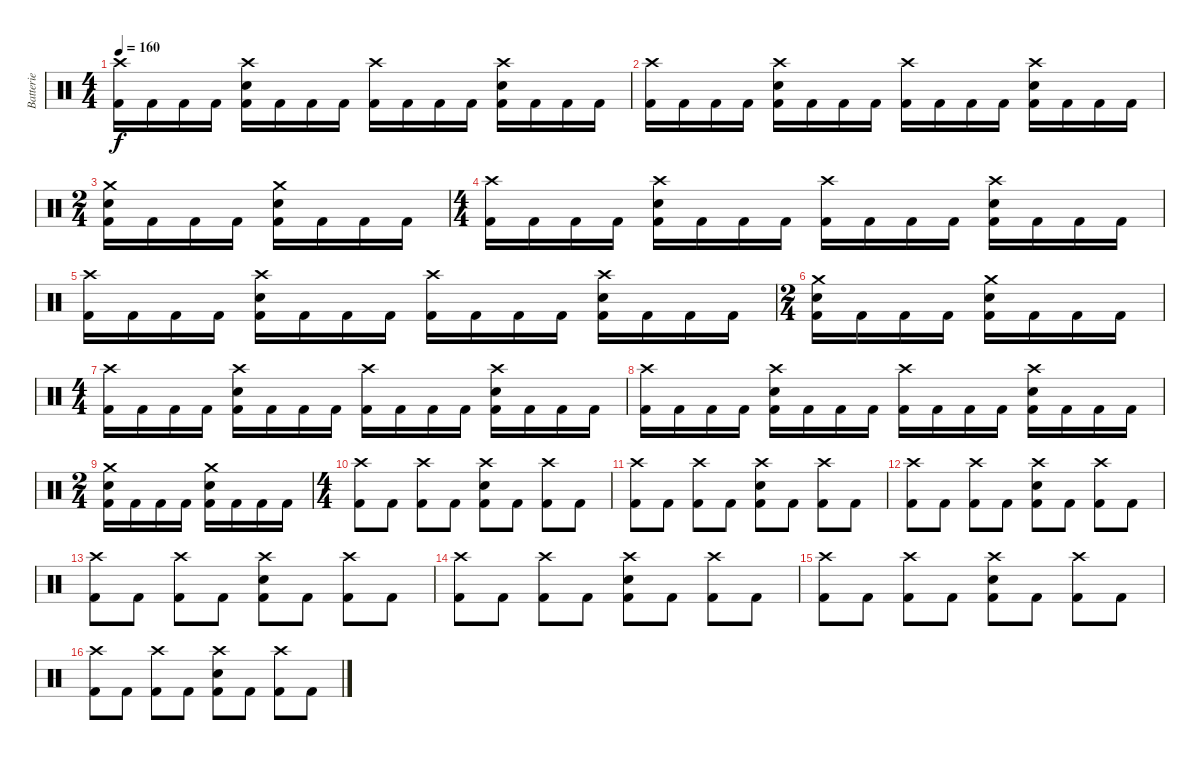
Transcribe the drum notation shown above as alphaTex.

\track ("Batterie" "Batterie") {instrument percussion}
\staff {score}
\articulation defaults
\ts (4 4)
\tempo 160
\clef neutral
\ks c
("Crash high (hit)" "Kick (hit) 2").16{dy f} "Kick (hit) 2".16 "Kick (hit) 2".16 "Kick (hit) 2".16 ("Crash high (hit)" "Electric Snare (hit)" "Kick (hit) 2").16 "Kick (hit) 2".16 "Kick (hit) 2".16 "Kick (hit) 2".16 ("Crash high (hit)" "Kick (hit) 2").16 "Kick (hit) 2".16 "Kick (hit) 2".16 "Kick (hit) 2".16 ("Crash high (hit)" "Electric Snare (hit)" "Kick (hit) 2").16 "Kick (hit) 2".16 "Kick (hit) 2".16 "Kick (hit) 2".16 |
("Crash high (hit)" "Kick (hit) 2").16 "Kick (hit) 2".16 "Kick (hit) 2".16 "Kick (hit) 2".16 ("Crash high (hit)" "Electric Snare (hit)" "Kick (hit) 2").16 "Kick (hit) 2".16 "Kick (hit) 2".16 "Kick (hit) 2".16 ("Crash high (hit)" "Kick (hit) 2").16 "Kick (hit) 2".16 "Kick (hit) 2".16 "Kick (hit) 2".16 ("Crash high (hit)" "Electric Snare (hit)" "Kick (hit) 2").16 "Kick (hit) 2".16 "Kick (hit) 2".16 "Kick (hit) 2".16 |
\ts (2 4)
("Crash medium (hit)" "Electric Snare (hit)" "Kick (hit) 2").16 "Kick (hit) 2".16 "Kick (hit) 2".16 "Kick (hit) 2".16 ("Crash medium (hit)" "Electric Snare (hit)" "Kick (hit) 2").16 "Kick (hit) 2".16 "Kick (hit) 2".16 "Kick (hit) 2".16 |
\ts (4 4)
("Crash high (hit)" "Kick (hit) 2").16 "Kick (hit) 2".16 "Kick (hit) 2".16 "Kick (hit) 2".16 ("Crash high (hit)" "Electric Snare (hit)" "Kick (hit) 2").16 "Kick (hit) 2".16 "Kick (hit) 2".16 "Kick (hit) 2".16 ("Crash high (hit)" "Kick (hit) 2").16 "Kick (hit) 2".16 "Kick (hit) 2".16 "Kick (hit) 2".16 ("Crash high (hit)" "Electric Snare (hit)" "Kick (hit) 2").16 "Kick (hit) 2".16 "Kick (hit) 2".16 "Kick (hit) 2".16 |
("Crash high (hit)" "Kick (hit) 2").16 "Kick (hit) 2".16 "Kick (hit) 2".16 "Kick (hit) 2".16 ("Crash high (hit)" "Electric Snare (hit)" "Kick (hit) 2").16 "Kick (hit) 2".16 "Kick (hit) 2".16 "Kick (hit) 2".16 ("Crash high (hit)" "Kick (hit) 2").16 "Kick (hit) 2".16 "Kick (hit) 2".16 "Kick (hit) 2".16 ("Crash high (hit)" "Electric Snare (hit)" "Kick (hit) 2").16 "Kick (hit) 2".16 "Kick (hit) 2".16 "Kick (hit) 2".16 |
\ts (2 4)
("Crash medium (hit)" "Electric Snare (hit)" "Kick (hit) 2").16 "Kick (hit) 2".16 "Kick (hit) 2".16 "Kick (hit) 2".16 ("Crash medium (hit)" "Electric Snare (hit)" "Kick (hit) 2").16 "Kick (hit) 2".16 "Kick (hit) 2".16 "Kick (hit) 2".16 |
\ts (4 4)
("Crash high (hit)" "Kick (hit) 2").16 "Kick (hit) 2".16 "Kick (hit) 2".16 "Kick (hit) 2".16 ("Crash high (hit)" "Electric Snare (hit)" "Kick (hit) 2").16 "Kick (hit) 2".16 "Kick (hit) 2".16 "Kick (hit) 2".16 ("Crash high (hit)" "Kick (hit) 2").16 "Kick (hit) 2".16 "Kick (hit) 2".16 "Kick (hit) 2".16 ("Crash high (hit)" "Electric Snare (hit)" "Kick (hit) 2").16 "Kick (hit) 2".16 "Kick (hit) 2".16 "Kick (hit) 2".16 |
("Crash high (hit)" "Kick (hit) 2").16 "Kick (hit) 2".16 "Kick (hit) 2".16 "Kick (hit) 2".16 ("Crash high (hit)" "Electric Snare (hit)" "Kick (hit) 2").16 "Kick (hit) 2".16 "Kick (hit) 2".16 "Kick (hit) 2".16 ("Crash high (hit)" "Kick (hit) 2").16 "Kick (hit) 2".16 "Kick (hit) 2".16 "Kick (hit) 2".16 ("Crash high (hit)" "Electric Snare (hit)" "Kick (hit) 2").16 "Kick (hit) 2".16 "Kick (hit) 2".16 "Kick (hit) 2".16 |
\ts (2 4)
("Crash medium (hit)" "Electric Snare (hit)" "Kick (hit) 2").16 "Kick (hit) 2".16 "Kick (hit) 2".16 "Kick (hit) 2".16 ("Crash medium (hit)" "Electric Snare (hit)" "Kick (hit) 2").16 "Kick (hit) 2".16 "Kick (hit) 2".16 "Kick (hit) 2".16 |
\ts (4 4)
("Crash high (hit)" "Kick (hit) 2").8 "Kick (hit) 2".8 ("Crash high (hit)" "Kick (hit) 2").8 "Kick (hit) 2".8 ("Crash high (hit)" "Electric Snare (hit)" "Kick (hit) 2").8 "Kick (hit) 2".8 ("Crash high (hit)" "Kick (hit) 2").8 "Kick (hit) 2".8 |
("Crash high (hit)" "Kick (hit) 2").8 "Kick (hit) 2".8 ("Crash high (hit)" "Kick (hit) 2").8 "Kick (hit) 2".8 ("Crash high (hit)" "Electric Snare (hit)" "Kick (hit) 2").8 "Kick (hit) 2".8 ("Crash high (hit)" "Kick (hit) 2").8 "Kick (hit) 2".8 |
("Crash high (hit)" "Kick (hit) 2").8 "Kick (hit) 2".8 ("Crash high (hit)" "Kick (hit) 2").8 "Kick (hit) 2".8 ("Crash high (hit)" "Electric Snare (hit)" "Kick (hit) 2").8 "Kick (hit) 2".8 ("Crash high (hit)" "Kick (hit) 2").8 "Kick (hit) 2".8 |
("Crash high (hit)" "Kick (hit) 2").8 "Kick (hit) 2".8 ("Crash high (hit)" "Kick (hit) 2").8 "Kick (hit) 2".8 ("Crash high (hit)" "Electric Snare (hit)" "Kick (hit) 2").8 "Kick (hit) 2".8 ("Crash high (hit)" "Kick (hit) 2").8 "Kick (hit) 2".8 |
("Crash high (hit)" "Kick (hit) 2").8 "Kick (hit) 2".8 ("Crash high (hit)" "Kick (hit) 2").8 "Kick (hit) 2".8 ("Crash high (hit)" "Electric Snare (hit)" "Kick (hit) 2").8 "Kick (hit) 2".8 ("Crash high (hit)" "Kick (hit) 2").8 "Kick (hit) 2".8 |
("Crash high (hit)" "Kick (hit) 2").8 "Kick (hit) 2".8 ("Crash high (hit)" "Kick (hit) 2").8 "Kick (hit) 2".8 ("Crash high (hit)" "Electric Snare (hit)" "Kick (hit) 2").8 "Kick (hit) 2".8 ("Crash high (hit)" "Kick (hit) 2").8 "Kick (hit) 2".8 |
("Crash high (hit)" "Kick (hit) 2").8 "Kick (hit) 2".8 ("Crash high (hit)" "Kick (hit) 2").8 "Kick (hit) 2".8 ("Crash high (hit)" "Electric Snare (hit)" "Kick (hit) 2").8 "Kick (hit) 2".8 ("Crash high (hit)" "Kick (hit) 2").8 "Kick (hit) 2".8
